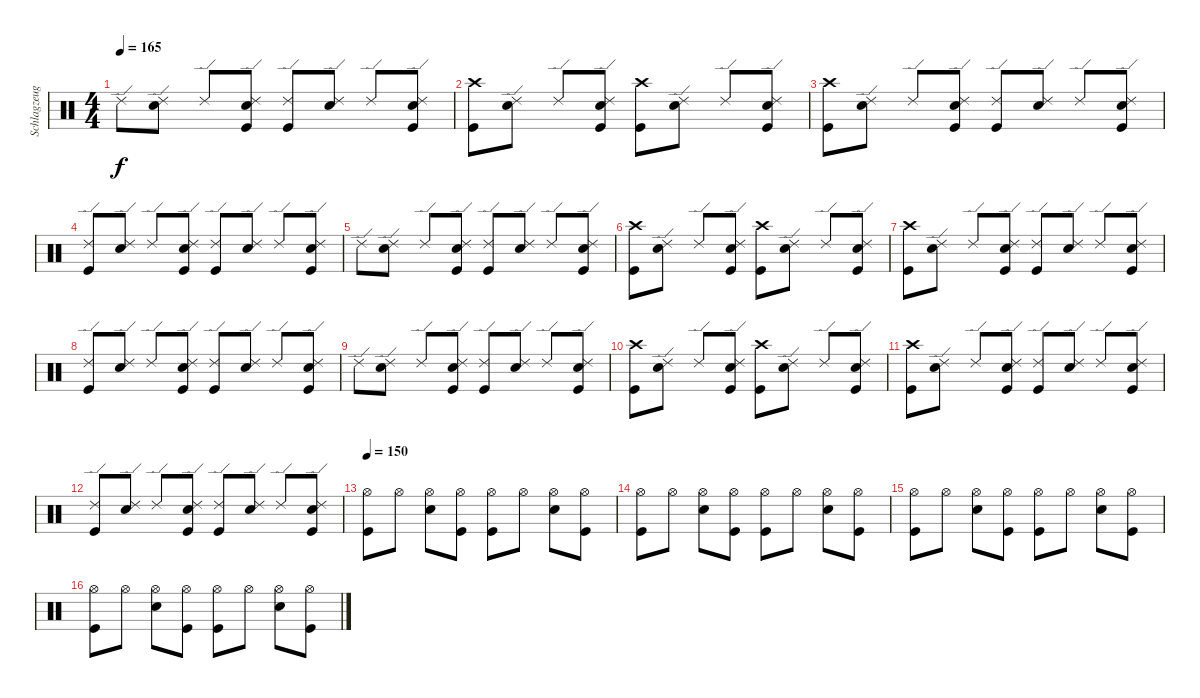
\track ("Schlagzeug" "Schlagzeug") {instrument percussion}
\staff {score}
\articulation defaults
\ts (4 4)
\tempo 165
\clef neutral
\ks c "Ride (edge) 2".8{dy f}
("Ride (edge) 2" "Snare (hit) 2").8 "Ride (edge) 2".8 ("Ride (edge) 2" "Snare (hit) 2" "Kick (hit)").8 ("Ride (edge) 2" "Kick (hit)").8 ("Ride (edge) 2" "Snare (hit) 2").8 "Ride (edge) 2".8 ("Ride (edge) 2" "Snare (hit) 2" "Kick (hit)").8 |
("Crash high (hit)" "Kick (hit)").8 ("Ride (edge) 2" "Snare (hit) 2").8 "Ride (edge) 2".8 ("Ride (edge) 2" "Snare (hit) 2" "Kick (hit)").8 ("Crash high (hit)" "Kick (hit)").8 ("Ride (edge) 2" "Snare (hit) 2").8 "Ride (edge) 2".8 ("Ride (edge) 2" "Snare (hit) 2" "Kick (hit)").8 |
("Crash high (hit)" "Kick (hit)").8 ("Ride (edge) 2" "Snare (hit) 2").8 "Ride (edge) 2".8 ("Ride (edge) 2" "Snare (hit) 2" "Kick (hit)").8 ("Ride (edge) 2" "Kick (hit)").8 ("Ride (edge) 2" "Snare (hit) 2").8 "Ride (edge) 2".8 ("Ride (edge) 2" "Snare (hit) 2" "Kick (hit)").8 |
("Ride (edge) 2" "Kick (hit)").8 ("Ride (edge) 2" "Snare (hit) 2").8 "Ride (edge) 2".8 ("Ride (edge) 2" "Snare (hit) 2" "Kick (hit)").8 ("Ride (edge) 2" "Kick (hit)").8 ("Ride (edge) 2" "Snare (hit) 2").8 "Ride (edge) 2".8 ("Ride (edge) 2" "Snare (hit) 2" "Kick (hit)").8 |
"Ride (edge) 2".8 ("Ride (edge) 2" "Snare (hit) 2").8 "Ride (edge) 2".8 ("Ride (edge) 2" "Snare (hit) 2" "Kick (hit)").8 ("Ride (edge) 2" "Kick (hit)").8 ("Ride (edge) 2" "Snare (hit) 2").8 "Ride (edge) 2".8 ("Ride (edge) 2" "Snare (hit) 2" "Kick (hit)").8 |
("Crash high (hit)" "Kick (hit)").8 ("Ride (edge) 2" "Snare (hit) 2").8 "Ride (edge) 2".8 ("Ride (edge) 2" "Snare (hit) 2" "Kick (hit)").8 ("Crash high (hit)" "Kick (hit)").8 ("Ride (edge) 2" "Snare (hit) 2").8 "Ride (edge) 2".8 ("Ride (edge) 2" "Snare (hit) 2" "Kick (hit)").8 |
("Crash high (hit)" "Kick (hit)").8 ("Ride (edge) 2" "Snare (hit) 2").8 "Ride (edge) 2".8 ("Ride (edge) 2" "Snare (hit) 2" "Kick (hit)").8 ("Ride (edge) 2" "Kick (hit)").8 ("Ride (edge) 2" "Snare (hit) 2").8 "Ride (edge) 2".8 ("Ride (edge) 2" "Snare (hit) 2" "Kick (hit)").8 |
("Ride (edge) 2" "Kick (hit)").8 ("Ride (edge) 2" "Snare (hit) 2").8 "Ride (edge) 2".8 ("Ride (edge) 2" "Snare (hit) 2" "Kick (hit)").8 ("Ride (edge) 2" "Kick (hit)").8 ("Ride (edge) 2" "Snare (hit) 2").8 "Ride (edge) 2".8 ("Ride (edge) 2" "Snare (hit) 2" "Kick (hit)").8 |
"Ride (edge) 2".8 ("Ride (edge) 2" "Snare (hit) 2").8 "Ride (edge) 2".8 ("Ride (edge) 2" "Snare (hit) 2" "Kick (hit)").8 ("Ride (edge) 2" "Kick (hit)").8 ("Ride (edge) 2" "Snare (hit) 2").8 "Ride (edge) 2".8 ("Ride (edge) 2" "Snare (hit) 2" "Kick (hit)").8 |
("Crash high (hit)" "Kick (hit)").8 ("Ride (edge) 2" "Snare (hit) 2").8 "Ride (edge) 2".8 ("Ride (edge) 2" "Snare (hit) 2" "Kick (hit)").8 ("Crash high (hit)" "Kick (hit)").8 ("Ride (edge) 2" "Snare (hit) 2").8 "Ride (edge) 2".8 ("Ride (edge) 2" "Snare (hit) 2" "Kick (hit)").8 |
("Crash high (hit)" "Kick (hit)").8 ("Ride (edge) 2" "Snare (hit) 2").8 "Ride (edge) 2".8 ("Ride (edge) 2" "Snare (hit) 2" "Kick (hit)").8 ("Ride (edge) 2" "Kick (hit)").8 ("Ride (edge) 2" "Snare (hit) 2").8 "Ride (edge) 2".8 ("Ride (edge) 2" "Snare (hit) 2" "Kick (hit)").8 |
("Ride (edge) 2" "Kick (hit)").8 ("Ride (edge) 2" "Snare (hit) 2").8 "Ride (edge) 2".8 ("Ride (edge) 2" "Snare (hit) 2" "Kick (hit)").8 ("Ride (edge) 2" "Kick (hit)").8 ("Ride (edge) 2" "Snare (hit) 2").8 "Ride (edge) 2".8 ("Ride (edge) 2" "Snare (hit) 2" "Kick (hit)").8 |
\tempo 150
("Hi-Hat (open)" "Kick (hit)").8 "Hi-Hat (open)".8 ("Hi-Hat (open)" "Electric Snare (hit)").8 ("Hi-Hat (open)" "Kick (hit)").8 ("Hi-Hat (open)" "Kick (hit)").8 "Hi-Hat (open)".8 ("Hi-Hat (open)" "Electric Snare (hit)").8 ("Hi-Hat (open)" "Kick (hit)").8 |
("Hi-Hat (open)" "Kick (hit)").8 "Hi-Hat (open)".8 ("Hi-Hat (open)" "Electric Snare (hit)").8 ("Hi-Hat (open)" "Kick (hit)").8 ("Hi-Hat (open)" "Kick (hit)").8 "Hi-Hat (open)".8 ("Hi-Hat (open)" "Electric Snare (hit)").8 ("Hi-Hat (open)" "Kick (hit)").8 |
("Hi-Hat (open)" "Kick (hit)").8 "Hi-Hat (open)".8 ("Hi-Hat (open)" "Electric Snare (hit)").8 ("Hi-Hat (open)" "Kick (hit)").8 ("Hi-Hat (open)" "Kick (hit)").8 "Hi-Hat (open)".8 ("Hi-Hat (open)" "Electric Snare (hit)").8 ("Hi-Hat (open)" "Kick (hit)").8 |
("Hi-Hat (open)" "Kick (hit)").8 "Hi-Hat (open)".8 ("Hi-Hat (open)" "Electric Snare (hit)").8 ("Hi-Hat (open)" "Kick (hit)").8 ("Hi-Hat (open)" "Kick (hit)").8 "Hi-Hat (open)".8 ("Hi-Hat (open)" "Electric Snare (hit)").8 ("Hi-Hat (open)" "Kick (hit)").8
